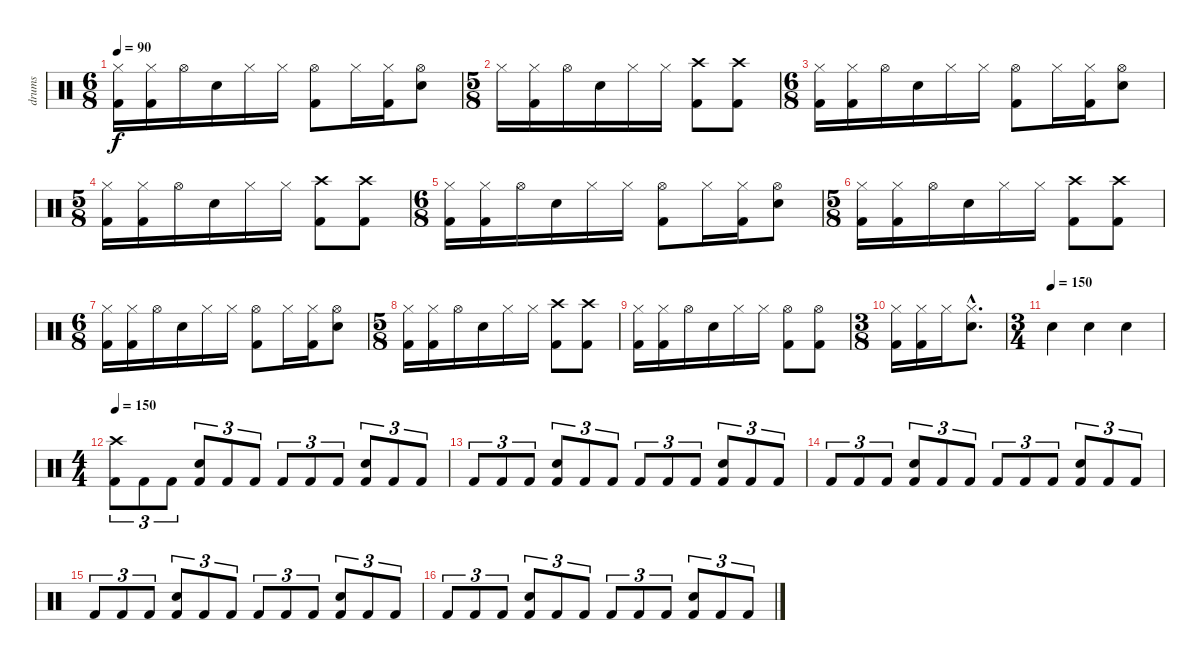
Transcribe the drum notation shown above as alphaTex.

\track ("drums" "drums") {instrument percussion}
\staff {score}
\articulation defaults
\ts (6 8)
\tempo 90
\clef neutral
\ks c
("Hi-Hat (closed)" "Kick (hit) 2").16{dy f} ("Hi-Hat (closed)" "Kick (hit) 2").16 "Hi-Hat (open)".16 "Electric Snare (hit)".16 "Hi-Hat (closed)".16 "Hi-Hat (closed)".16 ("Hi-Hat (open)" "Kick (hit) 2").8 "Hi-Hat (closed)".16 ("Hi-Hat (closed)" "Kick (hit) 2").16 ("Hi-Hat (open)" "Electric Snare (hit)").8 |
\ts (5 8)
"Hi-Hat (closed)".16 ("Hi-Hat (closed)" "Kick (hit) 2").16 "Hi-Hat (open)".16 "Electric Snare (hit)".16 "Hi-Hat (closed)".16 "Hi-Hat (closed)".16 ("Crash high (hit)" "Kick (hit) 2").8 ("Crash high (hit)" "Kick (hit) 2").8 |
\ts (6 8)
("Hi-Hat (closed)" "Kick (hit) 2").16 ("Hi-Hat (closed)" "Kick (hit) 2").16 "Hi-Hat (open)".16 "Electric Snare (hit)".16 "Hi-Hat (closed)".16 "Hi-Hat (closed)".16 ("Hi-Hat (open)" "Kick (hit) 2").8 "Hi-Hat (closed)".16 ("Hi-Hat (closed)" "Kick (hit) 2").16 ("Hi-Hat (open)" "Electric Snare (hit)").8 |
\ts (5 8)
("Hi-Hat (closed)" "Kick (hit) 2").16 ("Hi-Hat (closed)" "Kick (hit) 2").16 "Hi-Hat (open)".16 "Electric Snare (hit)".16 "Hi-Hat (closed)".16 "Hi-Hat (closed)".16 ("Crash high (hit)" "Kick (hit) 2").8 ("Crash high (hit)" "Kick (hit) 2").8 |
\ts (6 8)
("Hi-Hat (closed)" "Kick (hit) 2").16 ("Hi-Hat (closed)" "Kick (hit) 2").16 "Hi-Hat (open)".16 "Electric Snare (hit)".16 "Hi-Hat (closed)".16 "Hi-Hat (closed)".16 ("Hi-Hat (open)" "Kick (hit) 2").8 "Hi-Hat (closed)".16 ("Hi-Hat (closed)" "Kick (hit) 2").16 ("Hi-Hat (open)" "Electric Snare (hit)").8 |
\ts (5 8)
("Hi-Hat (closed)" "Kick (hit) 2").16 ("Hi-Hat (closed)" "Kick (hit) 2").16 "Hi-Hat (open)".16 "Electric Snare (hit)".16 "Hi-Hat (closed)".16 "Hi-Hat (closed)".16 ("Crash high (hit)" "Kick (hit) 2").8 ("Crash high (hit)" "Kick (hit) 2").8 |
\ts (6 8)
("Hi-Hat (closed)" "Kick (hit) 2").16 ("Hi-Hat (closed)" "Kick (hit) 2").16 "Hi-Hat (open)".16 "Electric Snare (hit)".16 "Hi-Hat (closed)".16 "Hi-Hat (closed)".16 ("Hi-Hat (open)" "Kick (hit) 2").8 "Hi-Hat (closed)".16 ("Hi-Hat (closed)" "Kick (hit) 2").16 ("Hi-Hat (open)" "Electric Snare (hit)").8 |
\ts (5 8)
("Hi-Hat (closed)" "Kick (hit) 2").16 ("Hi-Hat (closed)" "Kick (hit) 2").16 "Hi-Hat (open)".16 "Electric Snare (hit)".16 "Hi-Hat (closed)".16 "Hi-Hat (closed)".16 ("Crash high (hit)" "Kick (hit) 2").8 ("Crash high (hit)" "Kick (hit) 2").8 |
("Hi-Hat (closed)" "Kick (hit) 2").16 ("Hi-Hat (closed)" "Kick (hit) 2").16 "Hi-Hat (open)".16 "Electric Snare (hit)".16 "Hi-Hat (closed)".16 "Hi-Hat (closed)".16 ("Hi-Hat (open)" "Kick (hit) 2").8 ("Hi-Hat (open)" "Kick (hit) 2").8 |
\ts (3 8)
("Hi-Hat (closed)" "Kick (hit) 2").16 ("Hi-Hat (closed)" "Kick (hit) 2").16 "Hi-Hat (closed)".16 ("Hi-Hat (closed)"{hac} "Electric Snare (hit)"{hac}).8{d} |
\ts (3 4)
\tempo (150)
"Electric Snare (hit)".4 "Electric Snare (hit)".4 "Electric Snare (hit)".4 |
\ts (4 4)
\tempo 150
("Crash high (hit)" "Kick (hit) 2").8{tu (3 2)} "Kick (hit) 2".8{tu (3 2)} "Kick (hit) 2".8{tu (3 2)} ("Electric Snare (hit)" "Kick (hit) 2").8{tu (3 2)} "Kick (hit) 2".8{tu (3 2)} "Kick (hit) 2".8{tu (3 2)} "Kick (hit) 2".8{tu (3 2)} "Kick (hit) 2".8{tu (3 2)} "Kick (hit) 2".8{tu (3 2)} ("Electric Snare (hit)" "Kick (hit) 2").8{tu (3 2)} "Kick (hit) 2".8{tu (3 2)} "Kick (hit) 2".8{tu (3 2)} |
"Kick (hit) 2".8{tu (3 2)} "Kick (hit) 2".8{tu (3 2)} "Kick (hit) 2".8{tu (3 2)} ("Electric Snare (hit)" "Kick (hit) 2").8{tu (3 2)} "Kick (hit) 2".8{tu (3 2)} "Kick (hit) 2".8{tu (3 2)} "Kick (hit) 2".8{tu (3 2)} "Kick (hit) 2".8{tu (3 2)} "Kick (hit) 2".8{tu (3 2)} ("Electric Snare (hit)" "Kick (hit) 2").8{tu (3 2)} "Kick (hit) 2".8{tu (3 2)} "Kick (hit) 2".8{tu (3 2)} |
"Kick (hit) 2".8{tu (3 2)} "Kick (hit) 2".8{tu (3 2)} "Kick (hit) 2".8{tu (3 2)} ("Electric Snare (hit)" "Kick (hit) 2").8{tu (3 2)} "Kick (hit) 2".8{tu (3 2)} "Kick (hit) 2".8{tu (3 2)} "Kick (hit) 2".8{tu (3 2)} "Kick (hit) 2".8{tu (3 2)} "Kick (hit) 2".8{tu (3 2)} ("Electric Snare (hit)" "Kick (hit) 2").8{tu (3 2)} "Kick (hit) 2".8{tu (3 2)} "Kick (hit) 2".8{tu (3 2)} |
"Kick (hit) 2".8{tu (3 2)} "Kick (hit) 2".8{tu (3 2)} "Kick (hit) 2".8{tu (3 2)} ("Electric Snare (hit)" "Kick (hit) 2").8{tu (3 2)} "Kick (hit) 2".8{tu (3 2)} "Kick (hit) 2".8{tu (3 2)} "Kick (hit) 2".8{tu (3 2)} "Kick (hit) 2".8{tu (3 2)} "Kick (hit) 2".8{tu (3 2)} ("Electric Snare (hit)" "Kick (hit) 2").8{tu (3 2)} "Kick (hit) 2".8{tu (3 2)} "Kick (hit) 2".8{tu (3 2)} |
"Kick (hit) 2".8{tu (3 2)} "Kick (hit) 2".8{tu (3 2)} "Kick (hit) 2".8{tu (3 2)} ("Electric Snare (hit)" "Kick (hit) 2").8{tu (3 2)} "Kick (hit) 2".8{tu (3 2)} "Kick (hit) 2".8{tu (3 2)} "Kick (hit) 2".8{tu (3 2)} "Kick (hit) 2".8{tu (3 2)} "Kick (hit) 2".8{tu (3 2)} ("Electric Snare (hit)" "Kick (hit) 2").8{tu (3 2)} "Kick (hit) 2".8{tu (3 2)} "Kick (hit) 2".8{tu (3 2)}
